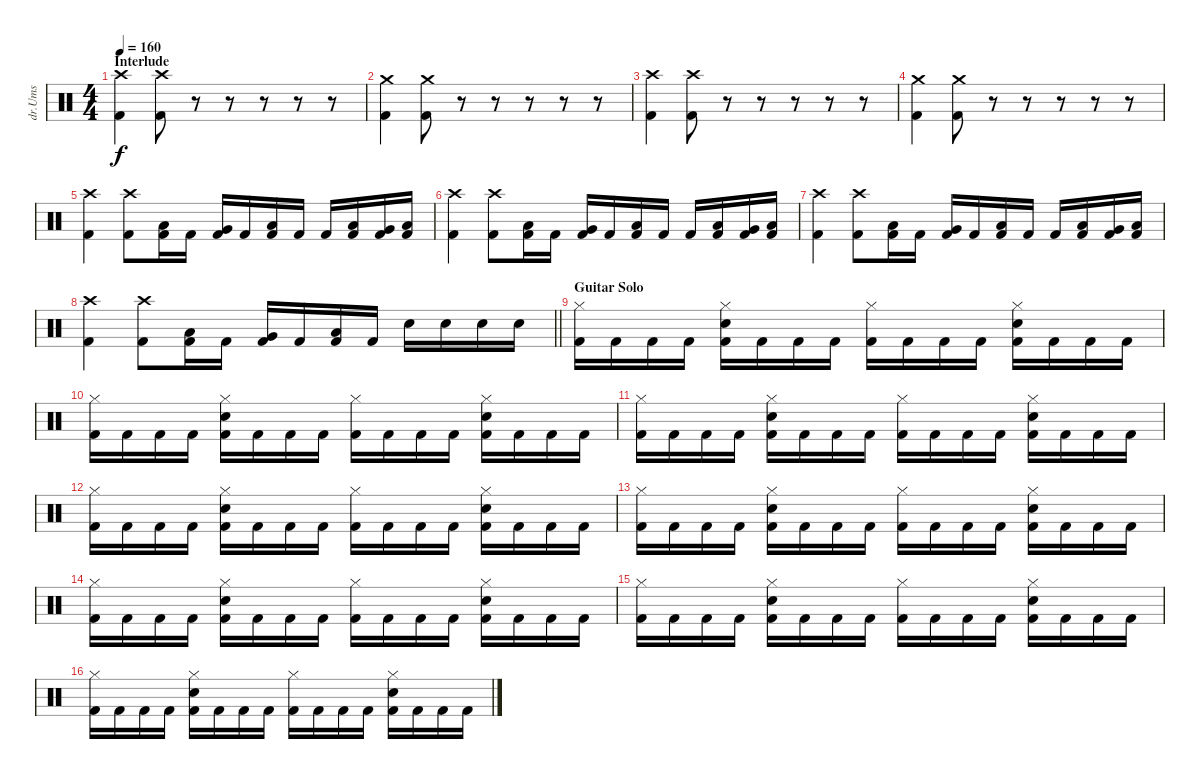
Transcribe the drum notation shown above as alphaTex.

\track ("dr.Ums" "dr.Ums") {instrument percussion}
\staff {score}
\articulation defaults
\ts (4 4)
\section ("" "Interlude")
\tempo 160
\clef neutral
\ks c
("Kick (hit) 2" "Crash high (hit)").4{dy f} ("Kick (hit) 2" "Crash high (hit)").8 r.8 r.8 r.8 r.8 r.8 |
("Kick (hit) 2" "Crash medium (hit)").4 ("Kick (hit) 2" "Crash medium (hit)").8 r.8 r.8 r.8 r.8 r.8 |
("Kick (hit) 2" "Crash high (hit)").4 ("Kick (hit) 2" "Crash high (hit)").8 r.8 r.8 r.8 r.8 r.8 |
("Kick (hit) 2" "Crash medium (hit)").4 ("Kick (hit) 2" "Crash medium (hit)").8 r.8 r.8 r.8 r.8 r.8 |
("Kick (hit) 2" "Crash high (hit)").4 ("Kick (hit) 2" "Crash high (hit)").8 ("Kick (hit) 2" "Low Tom (hit)").16 "Kick (hit) 2".16 ("Kick (hit) 2" "Very Low Tom (hit)").16 "Kick (hit) 2".16 ("Kick (hit) 2" "Low Floor Tom (hit)").16 "Kick (hit) 2".16 "Kick (hit) 2".16 ("Kick (hit) 2" "Low Tom (hit)").16 ("Kick (hit) 2" "Very Low Tom (hit)").16 ("Kick (hit) 2" "Low Floor Tom (hit)").16 |
("Kick (hit) 2" "Crash high (hit)").4 ("Kick (hit) 2" "Crash high (hit)").8 ("Kick (hit) 2" "Low Tom (hit)").16 "Kick (hit) 2".16 ("Kick (hit) 2" "Very Low Tom (hit)").16 "Kick (hit) 2".16 ("Kick (hit) 2" "Low Floor Tom (hit)").16 "Kick (hit) 2".16 "Kick (hit) 2".16 ("Kick (hit) 2" "Low Tom (hit)").16 ("Kick (hit) 2" "Very Low Tom (hit)").16 ("Kick (hit) 2" "Low Floor Tom (hit)").16 |
("Kick (hit) 2" "Crash high (hit)").4 ("Kick (hit) 2" "Crash high (hit)").8 ("Kick (hit) 2" "Low Tom (hit)").16 "Kick (hit) 2".16 ("Kick (hit) 2" "Very Low Tom (hit)").16 "Kick (hit) 2".16 ("Kick (hit) 2" "Low Floor Tom (hit)").16 "Kick (hit) 2".16 "Kick (hit) 2".16 ("Kick (hit) 2" "Low Tom (hit)").16 ("Kick (hit) 2" "Very Low Tom (hit)").16 ("Kick (hit) 2" "Low Floor Tom (hit)").16 |
\barLineRight lightlight
("Kick (hit) 2" "Crash high (hit)").4 ("Kick (hit) 2" "Crash high (hit)").8 ("Kick (hit) 2" "Low Tom (hit)").16 "Kick (hit) 2".16 ("Kick (hit) 2" "Very Low Tom (hit)").16 "Kick (hit) 2".16 ("Kick (hit) 2" "Low Floor Tom (hit)").16 "Kick (hit) 2".16 "Snare (hit) 2".16 "Snare (hit) 2".16 "Snare (hit) 2".16 "Snare (hit) 2".16 |
\section ("" "Guitar Solo")
("Hi-Hat (closed)" "Kick (hit) 2").16 "Kick (hit) 2".16 "Kick (hit) 2".16 "Kick (hit) 2".16 ("Snare (hit) 2" "Hi-Hat (closed)" "Kick (hit) 2").16 "Kick (hit) 2".16 "Kick (hit) 2".16 "Kick (hit) 2".16 ("Hi-Hat (closed)" "Kick (hit) 2").16 "Kick (hit) 2".16 "Kick (hit) 2".16 "Kick (hit) 2".16 ("Snare (hit) 2" "Hi-Hat (closed)" "Kick (hit) 2").16 "Kick (hit) 2".16 "Kick (hit) 2".16 "Kick (hit) 2".16 |
("Hi-Hat (closed)" "Kick (hit) 2").16 "Kick (hit) 2".16 "Kick (hit) 2".16 "Kick (hit) 2".16 ("Snare (hit) 2" "Hi-Hat (closed)" "Kick (hit) 2").16 "Kick (hit) 2".16 "Kick (hit) 2".16 "Kick (hit) 2".16 ("Hi-Hat (closed)" "Kick (hit) 2").16 "Kick (hit) 2".16 "Kick (hit) 2".16 "Kick (hit) 2".16 ("Snare (hit) 2" "Hi-Hat (closed)" "Kick (hit) 2").16 "Kick (hit) 2".16 "Kick (hit) 2".16 "Kick (hit) 2".16 |
("Hi-Hat (closed)" "Kick (hit) 2").16 "Kick (hit) 2".16 "Kick (hit) 2".16 "Kick (hit) 2".16 ("Snare (hit) 2" "Hi-Hat (closed)" "Kick (hit) 2").16 "Kick (hit) 2".16 "Kick (hit) 2".16 "Kick (hit) 2".16 ("Hi-Hat (closed)" "Kick (hit) 2").16 "Kick (hit) 2".16 "Kick (hit) 2".16 "Kick (hit) 2".16 ("Snare (hit) 2" "Hi-Hat (closed)" "Kick (hit) 2").16 "Kick (hit) 2".16 "Kick (hit) 2".16 "Kick (hit) 2".16 |
("Hi-Hat (closed)" "Kick (hit) 2").16 "Kick (hit) 2".16 "Kick (hit) 2".16 "Kick (hit) 2".16 ("Snare (hit) 2" "Hi-Hat (closed)" "Kick (hit) 2").16 "Kick (hit) 2".16 "Kick (hit) 2".16 "Kick (hit) 2".16 ("Hi-Hat (closed)" "Kick (hit) 2").16 "Kick (hit) 2".16 "Kick (hit) 2".16 "Kick (hit) 2".16 ("Snare (hit) 2" "Hi-Hat (closed)" "Kick (hit) 2").16 "Kick (hit) 2".16 "Kick (hit) 2".16 "Kick (hit) 2".16 |
("Hi-Hat (closed)" "Kick (hit) 2").16 "Kick (hit) 2".16 "Kick (hit) 2".16 "Kick (hit) 2".16 ("Snare (hit) 2" "Hi-Hat (closed)" "Kick (hit) 2").16 "Kick (hit) 2".16 "Kick (hit) 2".16 "Kick (hit) 2".16 ("Hi-Hat (closed)" "Kick (hit) 2").16 "Kick (hit) 2".16 "Kick (hit) 2".16 "Kick (hit) 2".16 ("Snare (hit) 2" "Hi-Hat (closed)" "Kick (hit) 2").16 "Kick (hit) 2".16 "Kick (hit) 2".16 "Kick (hit) 2".16 |
("Hi-Hat (closed)" "Kick (hit) 2").16 "Kick (hit) 2".16 "Kick (hit) 2".16 "Kick (hit) 2".16 ("Snare (hit) 2" "Hi-Hat (closed)" "Kick (hit) 2").16 "Kick (hit) 2".16 "Kick (hit) 2".16 "Kick (hit) 2".16 ("Hi-Hat (closed)" "Kick (hit) 2").16 "Kick (hit) 2".16 "Kick (hit) 2".16 "Kick (hit) 2".16 ("Snare (hit) 2" "Hi-Hat (closed)" "Kick (hit) 2").16 "Kick (hit) 2".16 "Kick (hit) 2".16 "Kick (hit) 2".16 |
("Hi-Hat (closed)" "Kick (hit) 2").16 "Kick (hit) 2".16 "Kick (hit) 2".16 "Kick (hit) 2".16 ("Snare (hit) 2" "Hi-Hat (closed)" "Kick (hit) 2").16 "Kick (hit) 2".16 "Kick (hit) 2".16 "Kick (hit) 2".16 ("Hi-Hat (closed)" "Kick (hit) 2").16 "Kick (hit) 2".16 "Kick (hit) 2".16 "Kick (hit) 2".16 ("Snare (hit) 2" "Hi-Hat (closed)" "Kick (hit) 2").16 "Kick (hit) 2".16 "Kick (hit) 2".16 "Kick (hit) 2".16 |
("Hi-Hat (closed)" "Kick (hit) 2").16 "Kick (hit) 2".16 "Kick (hit) 2".16 "Kick (hit) 2".16 ("Snare (hit) 2" "Hi-Hat (closed)" "Kick (hit) 2").16 "Kick (hit) 2".16 "Kick (hit) 2".16 "Kick (hit) 2".16 ("Hi-Hat (closed)" "Kick (hit) 2").16 "Kick (hit) 2".16 "Kick (hit) 2".16 "Kick (hit) 2".16 ("Snare (hit) 2" "Hi-Hat (closed)" "Kick (hit) 2").16 "Kick (hit) 2".16 "Kick (hit) 2".16 "Kick (hit) 2".16
